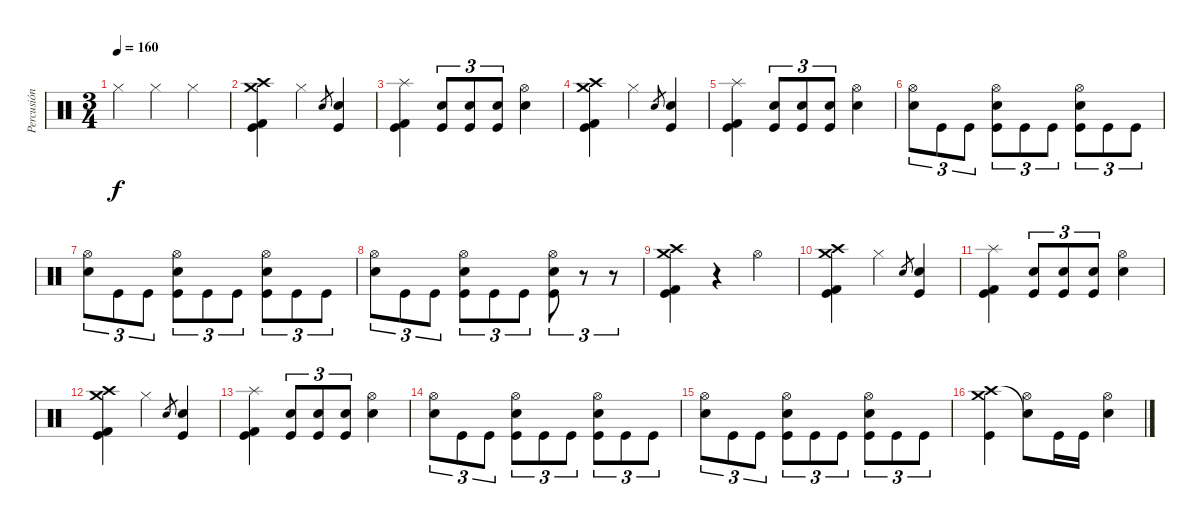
\track ("Percusión" "Percusión") {instrument percussion}
\staff {score}
\articulation defaults
\ts (3 4)
\tempo 160
\clef neutral
\ks c "Hi-Hat (closed)".4{dy f} "Hi-Hat (closed)".4 "Hi-Hat (closed)".4
|
("Crash medium (hit)" "Crash high (hit)" "Kick (hit) 2" "Kick (hit)").4 "Hi-Hat (closed)".4 "Electric Snare (hit)".8{gr} ("Electric Snare (hit)" "Kick (hit)").4 |
("Splash (hit)" "Kick (hit) 2" "Kick (hit)").4 ("Electric Snare (hit)" "Kick (hit)").8{tu (3 2)} ("Electric Snare (hit)" "Kick (hit)").8{tu (3 2)} ("Electric Snare (hit)" "Kick (hit)").8{tu (3 2)} ("Hi-Hat (open)" "Electric Snare (hit)").4 |
("Crash medium (hit)" "Crash high (hit)" "Kick (hit) 2" "Kick (hit)").4 "Hi-Hat (closed)".4 "Electric Snare (hit)".8{gr} ("Electric Snare (hit)" "Kick (hit)").4 |
("Splash (hit)" "Kick (hit) 2" "Kick (hit)").4 ("Electric Snare (hit)" "Kick (hit)").8{tu (3 2)} ("Electric Snare (hit)" "Kick (hit)").8{tu (3 2)} ("Electric Snare (hit)" "Kick (hit)").8{tu (3 2)} ("Hi-Hat (open)" "Electric Snare (hit)").4 |
("Hi-Hat (open)" "Electric Snare (hit)").8{tu (3 2)} "Kick (hit)".8{tu (3 2)} "Kick (hit)".8{tu (3 2)} ("Hi-Hat (open)" "Electric Snare (hit)" "Kick (hit)").8{tu (3 2)} "Kick (hit)".8{tu (3 2)} "Kick (hit)".8{tu (3 2)} ("Hi-Hat (open)" "Electric Snare (hit)" "Kick (hit)").8{tu (3 2)} "Kick (hit)".8{tu (3 2)} "Kick (hit)".8{tu (3 2)} |
("Hi-Hat (open)" "Electric Snare (hit)").8{tu (3 2)} "Kick (hit)".8{tu (3 2)} "Kick (hit)".8{tu (3 2)} ("Hi-Hat (open)" "Electric Snare (hit)" "Kick (hit)").8{tu (3 2)} "Kick (hit)".8{tu (3 2)} "Kick (hit)".8{tu (3 2)} ("Hi-Hat (open)" "Electric Snare (hit)" "Kick (hit)").8{tu (3 2)} "Kick (hit)".8{tu (3 2)} "Kick (hit)".8{tu (3 2)} |
("Hi-Hat (open)" "Electric Snare (hit)").8{tu (3 2)} "Kick (hit)".8{tu (3 2)} "Kick (hit)".8{tu (3 2)} ("Hi-Hat (open)" "Electric Snare (hit)" "Kick (hit)").8{tu (3 2)} "Kick (hit)".8{tu (3 2)} "Kick (hit)".8{tu (3 2)} ("Hi-Hat (open)" "Electric Snare (hit)" "Kick (hit)").8{tu (3 2)} r.8{tu (3 2)} r.8{tu (3 2)} |
("Crash medium (hit)" "Crash high (hit)" "Kick (hit) 2" "Kick (hit)").4 r.4 "Hi-Hat (open)".4 |
("Crash medium (hit)" "Crash high (hit)" "Kick (hit) 2" "Kick (hit)").4 "Hi-Hat (closed)".4 "Electric Snare (hit)".8{gr} ("Electric Snare (hit)" "Kick (hit)").4 |
("Splash (hit)" "Kick (hit) 2" "Kick (hit)").4 ("Electric Snare (hit)" "Kick (hit)").8{tu (3 2)} ("Electric Snare (hit)" "Kick (hit)").8{tu (3 2)} ("Electric Snare (hit)" "Kick (hit)").8{tu (3 2)} ("Hi-Hat (open)" "Electric Snare (hit)").4 |
("Crash medium (hit)" "Crash high (hit)" "Kick (hit) 2" "Kick (hit)").4 "Hi-Hat (closed)".4 "Electric Snare (hit)".8{gr} ("Electric Snare (hit)" "Kick (hit)").4 |
("Splash (hit)" "Kick (hit) 2" "Kick (hit)").4 ("Electric Snare (hit)" "Kick (hit)").8{tu (3 2)} ("Electric Snare (hit)" "Kick (hit)").8{tu (3 2)} ("Electric Snare (hit)" "Kick (hit)").8{tu (3 2)} ("Hi-Hat (open)" "Electric Snare (hit)").4 |
("Hi-Hat (open)" "Electric Snare (hit)").8{tu (3 2)} "Kick (hit)".8{tu (3 2)} "Kick (hit)".8{tu (3 2)} ("Hi-Hat (open)" "Electric Snare (hit)" "Kick (hit)").8{tu (3 2)} "Kick (hit)".8{tu (3 2)} "Kick (hit)".8{tu (3 2)} ("Hi-Hat (open)" "Electric Snare (hit)" "Kick (hit)").8{tu (3 2)} "Kick (hit)".8{tu (3 2)} "Kick (hit)".8{tu (3 2)} |
("Hi-Hat (open)" "Electric Snare (hit)").8{tu (3 2)} "Kick (hit)".8{tu (3 2)} "Kick (hit)".8{tu (3 2)} ("Hi-Hat (open)" "Electric Snare (hit)" "Kick (hit)").8{tu (3 2)} "Kick (hit)".8{tu (3 2)} "Kick (hit)".8{tu (3 2)} ("Hi-Hat (open)" "Electric Snare (hit)" "Kick (hit)").8{tu (3 2)} "Kick (hit)".8{tu (3 2)} "Kick (hit)".8{tu (3 2)} |
("Crash medium (hit)" "Crash high (hit)" "Kick (hit)").4 ("Hi-Hat (open)" "Snare (hit)"{t}).8 "Kick (hit)".16 "Kick (hit)".16 ("Hi-Hat (open)" "Electric Snare (hit)").4
